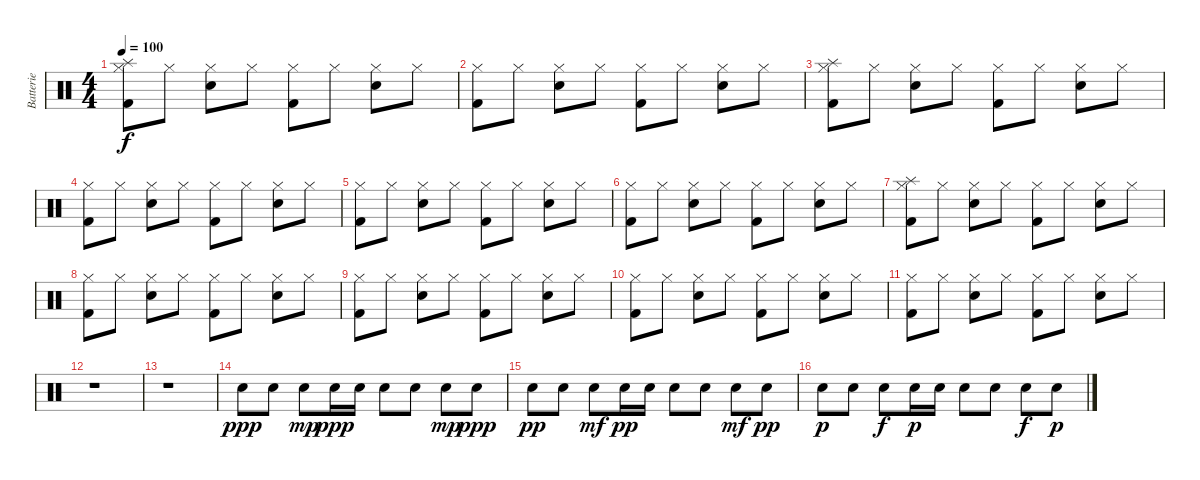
\track ("Batterie" "Batterie") {instrument percussion}
\staff {score}
\articulation defaults
\ts (4 4)
\tempo 100
\clef neutral
\ks c
("Splash (hit)" "Hi-Hat (closed)" "Kick (hit) 2").8{dy f} "Hi-Hat (closed)".8 ("Hi-Hat (closed)" "Snare (hit) 2").8 "Hi-Hat (closed)".8 ("Hi-Hat (closed)" "Kick (hit) 2").8 "Hi-Hat (closed)".8 ("Hi-Hat (closed)" "Snare (hit) 2").8 "Hi-Hat (closed)".8 |
("Hi-Hat (closed)" "Kick (hit) 2").8 "Hi-Hat (closed)".8 ("Hi-Hat (closed)" "Snare (hit) 2").8 "Hi-Hat (closed)".8 ("Hi-Hat (closed)" "Kick (hit) 2").8 "Hi-Hat (closed)".8 ("Hi-Hat (closed)" "Snare (hit) 2").8 "Hi-Hat (closed)".8 |
("Splash (hit)" "Hi-Hat (closed)" "Kick (hit) 2").8 "Hi-Hat (closed)".8 ("Hi-Hat (closed)" "Snare (hit) 2").8 "Hi-Hat (closed)".8 ("Hi-Hat (closed)" "Kick (hit) 2").8 "Hi-Hat (closed)".8 ("Hi-Hat (closed)" "Snare (hit) 2").8 "Hi-Hat (closed)".8 |
("Hi-Hat (closed)" "Kick (hit) 2").8 "Hi-Hat (closed)".8 ("Hi-Hat (closed)" "Snare (hit) 2").8 "Hi-Hat (closed)".8 ("Hi-Hat (closed)" "Kick (hit) 2").8 "Hi-Hat (closed)".8 ("Hi-Hat (closed)" "Snare (hit) 2").8 "Hi-Hat (closed)".8 |
("Hi-Hat (closed)" "Kick (hit) 2").8 "Hi-Hat (closed)".8 ("Hi-Hat (closed)" "Snare (hit) 2").8 "Hi-Hat (closed)".8 ("Hi-Hat (closed)" "Kick (hit) 2").8 "Hi-Hat (closed)".8 ("Hi-Hat (closed)" "Snare (hit) 2").8 "Hi-Hat (closed)".8 |
("Hi-Hat (closed)" "Kick (hit) 2").8 "Hi-Hat (closed)".8 ("Hi-Hat (closed)" "Snare (hit) 2").8 "Hi-Hat (closed)".8 ("Hi-Hat (closed)" "Kick (hit) 2").8 "Hi-Hat (closed)".8 ("Hi-Hat (closed)" "Snare (hit) 2").8 "Hi-Hat (closed)".8 |
("Splash (hit)" "Hi-Hat (closed)" "Kick (hit) 2").8 "Hi-Hat (closed)".8 ("Hi-Hat (closed)" "Snare (hit) 2").8 "Hi-Hat (closed)".8 ("Hi-Hat (closed)" "Kick (hit) 2").8 "Hi-Hat (closed)".8 ("Hi-Hat (closed)" "Snare (hit) 2").8 "Hi-Hat (closed)".8 |
("Hi-Hat (closed)" "Kick (hit) 2").8 "Hi-Hat (closed)".8 ("Hi-Hat (closed)" "Snare (hit) 2").8 "Hi-Hat (closed)".8 ("Hi-Hat (closed)" "Kick (hit) 2").8 "Hi-Hat (closed)".8 ("Hi-Hat (closed)" "Snare (hit) 2").8 "Hi-Hat (closed)".8 |
("Hi-Hat (closed)" "Kick (hit) 2").8 "Hi-Hat (closed)".8 ("Hi-Hat (closed)" "Snare (hit) 2").8 "Hi-Hat (closed)".8 ("Hi-Hat (closed)" "Kick (hit) 2").8 "Hi-Hat (closed)".8 ("Hi-Hat (closed)" "Snare (hit) 2").8 "Hi-Hat (closed)".8 |
("Hi-Hat (closed)" "Kick (hit) 2").8 "Hi-Hat (closed)".8 ("Hi-Hat (closed)" "Snare (hit) 2").8 "Hi-Hat (closed)".8 ("Hi-Hat (closed)" "Kick (hit) 2").8 "Hi-Hat (closed)".8 ("Hi-Hat (closed)" "Snare (hit) 2").8 "Hi-Hat (closed)".8 |
("Hi-Hat (closed)" "Kick (hit) 2").8 "Hi-Hat (closed)".8 ("Hi-Hat (closed)" "Snare (hit) 2").8 "Hi-Hat (closed)".8 ("Hi-Hat (closed)" "Kick (hit) 2").8 "Hi-Hat (closed)".8 ("Hi-Hat (closed)" "Snare (hit) 2").8 "Hi-Hat (closed)".8 |
r.1 |
r.1 |
"Snare (hit) 2".8{dy ppp} "Snare (hit) 2".8 "Snare (hit) 2".8{dy mp} "Snare (hit) 2".16{dy ppp} "Snare (hit) 2".16 "Snare (hit) 2".8 "Snare (hit) 2".8 "Snare (hit) 2".8{dy mp} "Snare (hit) 2".8{dy ppp} |
"Snare (hit) 2".8{dy pp} "Snare (hit) 2".8 "Snare (hit) 2".8{dy mf} "Snare (hit) 2".16{dy pp} "Snare (hit) 2".16 "Snare (hit) 2".8 "Snare (hit) 2".8 "Snare (hit) 2".8{dy mf} "Snare (hit) 2".8{dy pp} |
"Snare (hit) 2".8{dy p} "Snare (hit) 2".8 "Snare (hit) 2".8{dy f} "Snare (hit) 2".16{dy p} "Snare (hit) 2".16 "Snare (hit) 2".8 "Snare (hit) 2".8 "Snare (hit) 2".8{dy f} "Snare (hit) 2".8{dy p}
